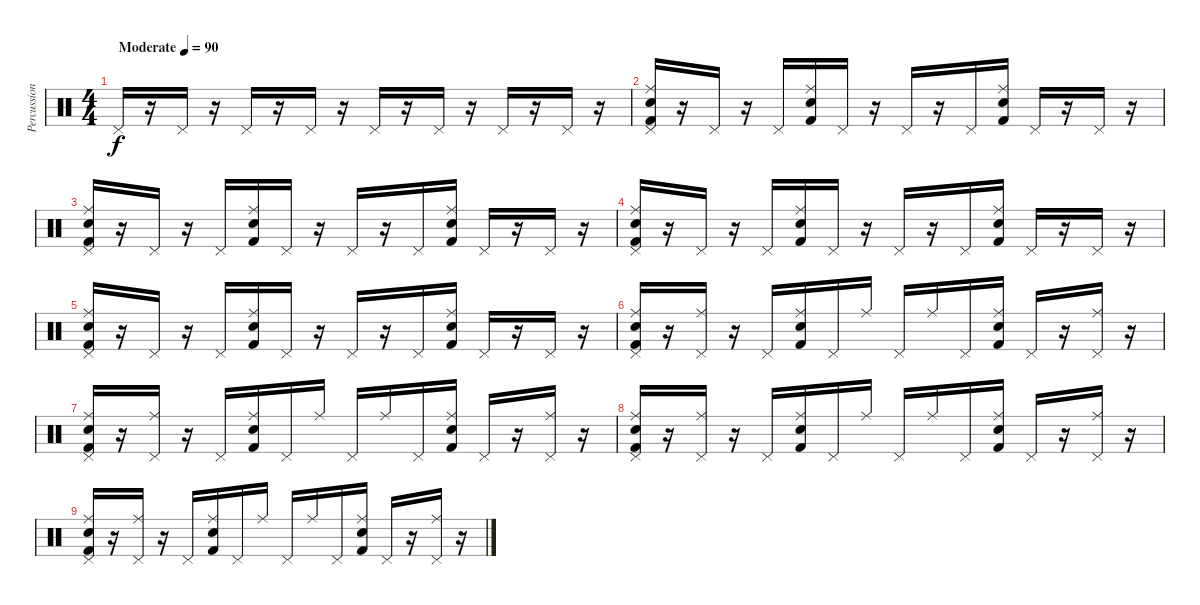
\track ("Percussion" "Percussion") {instrument percussion}
\staff {score}
\articulation defaults
\ts (4 4)
\tempo (90 "Moderate")
\clef neutral
\ks c "Pedal Hi-Hat (hit)".16{dy f}
r.16 "Pedal Hi-Hat (hit)".16 r.16 "Pedal Hi-Hat (hit)".16 r.16 "Pedal Hi-Hat (hit)".16 r.16 "Pedal Hi-Hat (hit)".16 r.16 "Pedal Hi-Hat (hit)".16 r.16 "Pedal Hi-Hat (hit)".16 r.16 "Pedal Hi-Hat (hit)".16 r.16 |
("Ride (middle)" "Electric Snare (hit)" "Pedal Hi-Hat (hit)" "Kick (hit) 2").16 r.16 "Pedal Hi-Hat (hit)".16 r.16 "Pedal Hi-Hat (hit)".16 ("Ride (middle)" "Electric Snare (hit)" "Kick (hit) 2").16 "Pedal Hi-Hat (hit)".16 r.16 "Pedal Hi-Hat (hit)".16 r.16 "Pedal Hi-Hat (hit)".16 ("Ride (middle)" "Electric Snare (hit)" "Kick (hit) 2").16 "Pedal Hi-Hat (hit)".16 r.16 "Pedal Hi-Hat (hit)".16 r.16 |
("Ride (middle)" "Electric Snare (hit)" "Pedal Hi-Hat (hit)" "Kick (hit) 2").16 r.16 "Pedal Hi-Hat (hit)".16 r.16 "Pedal Hi-Hat (hit)".16 ("Ride (middle)" "Electric Snare (hit)" "Kick (hit) 2").16 "Pedal Hi-Hat (hit)".16 r.16 "Pedal Hi-Hat (hit)".16 r.16 "Pedal Hi-Hat (hit)".16 ("Ride (middle)" "Electric Snare (hit)" "Kick (hit) 2").16 "Pedal Hi-Hat (hit)".16 r.16 "Pedal Hi-Hat (hit)".16 r.16 |
("Ride (middle)" "Electric Snare (hit)" "Pedal Hi-Hat (hit)" "Kick (hit) 2").16 r.16 "Pedal Hi-Hat (hit)".16 r.16 "Pedal Hi-Hat (hit)".16 ("Ride (middle)" "Electric Snare (hit)" "Kick (hit) 2").16 "Pedal Hi-Hat (hit)".16 r.16 "Pedal Hi-Hat (hit)".16 r.16 "Pedal Hi-Hat (hit)".16 ("Ride (middle)" "Electric Snare (hit)" "Kick (hit) 2").16 "Pedal Hi-Hat (hit)".16 r.16 "Pedal Hi-Hat (hit)".16 r.16 |
("Ride (middle)" "Electric Snare (hit)" "Pedal Hi-Hat (hit)" "Kick (hit) 2").16 r.16 "Pedal Hi-Hat (hit)".16 r.16 "Pedal Hi-Hat (hit)".16 ("Ride (middle)" "Electric Snare (hit)" "Kick (hit) 2").16 "Pedal Hi-Hat (hit)".16 r.16 "Pedal Hi-Hat (hit)".16 r.16 "Pedal Hi-Hat (hit)".16 ("Ride (middle)" "Electric Snare (hit)" "Kick (hit) 2").16 "Pedal Hi-Hat (hit)".16 r.16 "Pedal Hi-Hat (hit)".16 r.16 |
("Ride (middle)" "Electric Snare (hit)" "Pedal Hi-Hat (hit)" "Kick (hit) 2").16 r.16 ("Ride (middle)" "Pedal Hi-Hat (hit)").16 r.16 "Pedal Hi-Hat (hit)".16 ("Ride (middle)" "Electric Snare (hit)" "Kick (hit) 2").16 "Pedal Hi-Hat (hit)".16 "Ride (middle)".16 "Pedal Hi-Hat (hit)".16 "Ride (middle)".16 "Pedal Hi-Hat (hit)".16 ("Ride (middle)" "Electric Snare (hit)" "Kick (hit) 2").16 "Pedal Hi-Hat (hit)".16 r.16 ("Ride (middle)" "Pedal Hi-Hat (hit)").16 r.16 |
("Ride (middle)" "Electric Snare (hit)" "Pedal Hi-Hat (hit)" "Kick (hit) 2").16 r.16 ("Ride (middle)" "Pedal Hi-Hat (hit)").16 r.16 "Pedal Hi-Hat (hit)".16 ("Ride (middle)" "Electric Snare (hit)" "Kick (hit) 2").16 "Pedal Hi-Hat (hit)".16 "Ride (middle)".16 "Pedal Hi-Hat (hit)".16 "Ride (middle)".16 "Pedal Hi-Hat (hit)".16 ("Ride (middle)" "Electric Snare (hit)" "Kick (hit) 2").16 "Pedal Hi-Hat (hit)".16 r.16 ("Ride (middle)" "Pedal Hi-Hat (hit)").16 r.16 |
("Ride (middle)" "Electric Snare (hit)" "Pedal Hi-Hat (hit)" "Kick (hit) 2").16 r.16 ("Ride (middle)" "Pedal Hi-Hat (hit)").16 r.16 "Pedal Hi-Hat (hit)".16 ("Ride (middle)" "Electric Snare (hit)" "Kick (hit) 2").16 "Pedal Hi-Hat (hit)".16 "Ride (middle)".16 "Pedal Hi-Hat (hit)".16 "Ride (middle)".16 "Pedal Hi-Hat (hit)".16 ("Ride (middle)" "Electric Snare (hit)" "Kick (hit) 2").16 "Pedal Hi-Hat (hit)".16 r.16 ("Ride (middle)" "Pedal Hi-Hat (hit)").16 r.16 |
("Ride (middle)" "Electric Snare (hit)" "Pedal Hi-Hat (hit)" "Kick (hit) 2").16 r.16 ("Ride (middle)" "Pedal Hi-Hat (hit)").16 r.16 "Pedal Hi-Hat (hit)".16 ("Ride (middle)" "Electric Snare (hit)" "Kick (hit) 2").16 "Pedal Hi-Hat (hit)".16 "Ride (middle)".16 "Pedal Hi-Hat (hit)".16 "Ride (middle)".16 "Pedal Hi-Hat (hit)".16 ("Ride (middle)" "Electric Snare (hit)" "Kick (hit) 2").16 "Pedal Hi-Hat (hit)".16 r.16 ("Ride (middle)" "Pedal Hi-Hat (hit)").16 r.16
